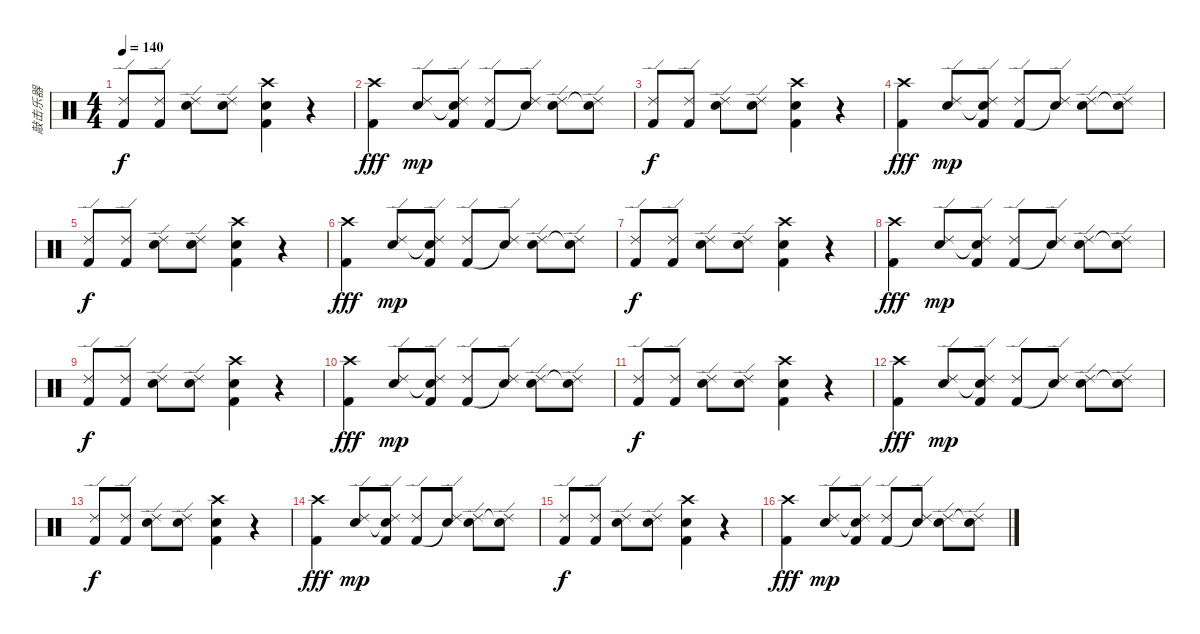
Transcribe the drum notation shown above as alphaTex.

\track ("敲击乐器" "敲击乐器") {instrument percussion}
\staff {score}
\articulation defaults
\ts (4 4)
\tempo 140
\clef neutral
\ks c
("Kick (hit) 2" "Ride (edge) 2").8{dy f} ("Kick (hit) 2" "Ride (edge) 2").8 ("Snare (hit) 2" "Ride (edge) 2").8 ("Snare (hit) 2" "Ride (edge) 2").8 ("Crash high (hit)" "Snare (hit) 2" "Kick (hit) 2").4 r.4 |
("Kick (hit) 2" "Crash high (hit)").4{dy fff} ("Electric Snare (hit)" "Ride (edge) 2").8{dy mp} ("Snare (hit)"{t} "Kick (hit) 2" "Ride (edge) 2").8 ("Kick (hit) 2" "Ride (edge) 2").8 ("Snare (hit)"{t} "Ride (edge) 2").8 ("Electric Snare (hit)" "Ride (edge) 2").8 ("Snare (hit)"{t} "Ride (edge) 2").8 |
("Kick (hit) 2" "Ride (edge) 2").8{dy f} ("Kick (hit) 2" "Ride (edge) 2").8 ("Snare (hit) 2" "Ride (edge) 2").8 ("Snare (hit) 2" "Ride (edge) 2").8 ("Crash high (hit)" "Snare (hit) 2" "Kick (hit) 2").4 r.4 |
("Kick (hit) 2" "Crash high (hit)").4{dy fff} ("Electric Snare (hit)" "Ride (edge) 2").8{dy mp} ("Snare (hit)"{t} "Kick (hit) 2" "Ride (edge) 2").8 ("Kick (hit) 2" "Ride (edge) 2").8 ("Snare (hit)"{t} "Ride (edge) 2").8 ("Electric Snare (hit)" "Ride (edge) 2").8 ("Snare (hit)"{t} "Ride (edge) 2").8 |
("Kick (hit) 2" "Ride (edge) 2").8{dy f} ("Kick (hit) 2" "Ride (edge) 2").8 ("Snare (hit) 2" "Ride (edge) 2").8 ("Snare (hit) 2" "Ride (edge) 2").8 ("Crash high (hit)" "Snare (hit) 2" "Kick (hit) 2").4 r.4 |
("Kick (hit) 2" "Crash high (hit)").4{dy fff} ("Electric Snare (hit)" "Ride (edge) 2").8{dy mp} ("Snare (hit)"{t} "Kick (hit) 2" "Ride (edge) 2").8 ("Kick (hit) 2" "Ride (edge) 2").8 ("Snare (hit)"{t} "Ride (edge) 2").8 ("Electric Snare (hit)" "Ride (edge) 2").8 ("Snare (hit)"{t} "Ride (edge) 2").8 |
("Kick (hit) 2" "Ride (edge) 2").8{dy f} ("Kick (hit) 2" "Ride (edge) 2").8 ("Snare (hit) 2" "Ride (edge) 2").8 ("Snare (hit) 2" "Ride (edge) 2").8 ("Crash high (hit)" "Snare (hit) 2" "Kick (hit) 2").4 r.4 |
("Kick (hit) 2" "Crash high (hit)").4{dy fff} ("Electric Snare (hit)" "Ride (edge) 2").8{dy mp} ("Snare (hit)"{t} "Kick (hit) 2" "Ride (edge) 2").8 ("Kick (hit) 2" "Ride (edge) 2").8 ("Snare (hit)"{t} "Ride (edge) 2").8 ("Electric Snare (hit)" "Ride (edge) 2").8 ("Snare (hit)"{t} "Ride (edge) 2").8 |
("Kick (hit) 2" "Ride (edge) 2").8{dy f} ("Kick (hit) 2" "Ride (edge) 2").8 ("Snare (hit) 2" "Ride (edge) 2").8 ("Snare (hit) 2" "Ride (edge) 2").8 ("Crash high (hit)" "Snare (hit) 2" "Kick (hit) 2").4 r.4 |
("Kick (hit) 2" "Crash high (hit)").4{dy fff} ("Electric Snare (hit)" "Ride (edge) 2").8{dy mp} ("Snare (hit)"{t} "Kick (hit) 2" "Ride (edge) 2").8 ("Kick (hit) 2" "Ride (edge) 2").8 ("Snare (hit)"{t} "Ride (edge) 2").8 ("Electric Snare (hit)" "Ride (edge) 2").8 ("Snare (hit)"{t} "Ride (edge) 2").8 |
("Kick (hit) 2" "Ride (edge) 2").8{dy f} ("Kick (hit) 2" "Ride (edge) 2").8 ("Snare (hit) 2" "Ride (edge) 2").8 ("Snare (hit) 2" "Ride (edge) 2").8 ("Crash high (hit)" "Snare (hit) 2" "Kick (hit) 2").4 r.4 |
("Kick (hit) 2" "Crash high (hit)").4{dy fff} ("Electric Snare (hit)" "Ride (edge) 2").8{dy mp} ("Snare (hit)"{t} "Kick (hit) 2" "Ride (edge) 2").8 ("Kick (hit) 2" "Ride (edge) 2").8 ("Snare (hit)"{t} "Ride (edge) 2").8 ("Electric Snare (hit)" "Ride (edge) 2").8 ("Snare (hit)"{t} "Ride (edge) 2").8 |
("Kick (hit) 2" "Ride (edge) 2").8{dy f} ("Kick (hit) 2" "Ride (edge) 2").8 ("Snare (hit) 2" "Ride (edge) 2").8 ("Snare (hit) 2" "Ride (edge) 2").8 ("Crash high (hit)" "Snare (hit) 2" "Kick (hit) 2").4 r.4 |
("Kick (hit) 2" "Crash high (hit)").4{dy fff} ("Electric Snare (hit)" "Ride (edge) 2").8{dy mp} ("Snare (hit)"{t} "Kick (hit) 2" "Ride (edge) 2").8 ("Kick (hit) 2" "Ride (edge) 2").8 ("Snare (hit)"{t} "Ride (edge) 2").8 ("Electric Snare (hit)" "Ride (edge) 2").8 ("Snare (hit)"{t} "Ride (edge) 2").8 |
("Kick (hit) 2" "Ride (edge) 2").8{dy f} ("Kick (hit) 2" "Ride (edge) 2").8 ("Snare (hit) 2" "Ride (edge) 2").8 ("Snare (hit) 2" "Ride (edge) 2").8 ("Crash high (hit)" "Snare (hit) 2" "Kick (hit) 2").4 r.4 |
("Kick (hit) 2" "Crash high (hit)").4{dy fff} ("Electric Snare (hit)" "Ride (edge) 2").8{dy mp} ("Snare (hit)"{t} "Kick (hit) 2" "Ride (edge) 2").8 ("Kick (hit) 2" "Ride (edge) 2").8 ("Snare (hit)"{t} "Ride (edge) 2").8 ("Electric Snare (hit)" "Ride (edge) 2").8 ("Snare (hit)"{t} "Ride (edge) 2").8
